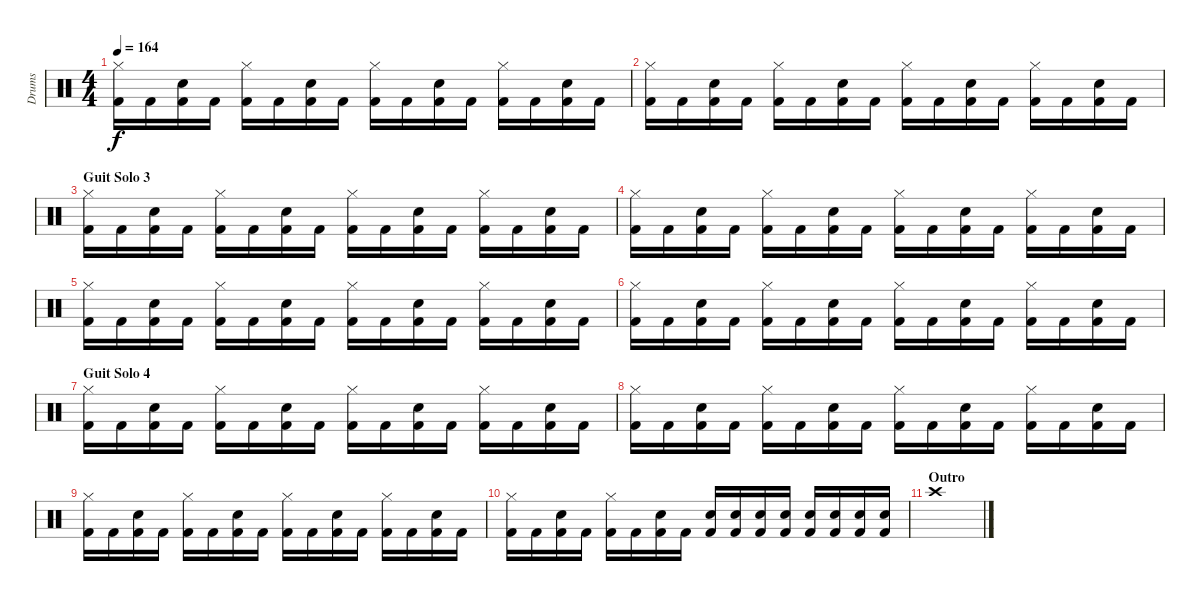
\track ("Drums" "Drums") {instrument percussion}
\staff {score}
\articulation defaults
\ts (4 4)
\tempo 164
\clef neutral
\ks c
("Hi-Hat (closed)" "Kick (hit) 2").16{dy f} "Kick (hit) 2".16 ("Snare (hit) 2" "Kick (hit) 2").16 "Kick (hit) 2".16 ("Hi-Hat (closed)" "Kick (hit) 2").16 "Kick (hit) 2".16 ("Snare (hit) 2" "Kick (hit) 2").16 "Kick (hit) 2".16 ("Hi-Hat (closed)" "Kick (hit) 2").16 "Kick (hit) 2".16 ("Snare (hit) 2" "Kick (hit) 2").16 "Kick (hit) 2".16 ("Hi-Hat (closed)" "Kick (hit) 2").16 "Kick (hit) 2".16 ("Snare (hit) 2" "Kick (hit) 2").16 "Kick (hit) 2".16 |
("Hi-Hat (closed)" "Kick (hit) 2").16 "Kick (hit) 2".16 ("Snare (hit) 2" "Kick (hit) 2").16 "Kick (hit) 2".16 ("Hi-Hat (closed)" "Kick (hit) 2").16 "Kick (hit) 2".16 ("Snare (hit) 2" "Kick (hit) 2").16 "Kick (hit) 2".16 ("Hi-Hat (closed)" "Kick (hit) 2").16 "Kick (hit) 2".16 ("Snare (hit) 2" "Kick (hit) 2").16 "Kick (hit) 2".16 ("Hi-Hat (closed)" "Kick (hit) 2").16 "Kick (hit) 2".16 ("Snare (hit) 2" "Kick (hit) 2").16 "Kick (hit) 2".16 |
\section ("" "Guit Solo 3")
("Hi-Hat (closed)" "Kick (hit) 2").16 "Kick (hit) 2".16 ("Snare (hit) 2" "Kick (hit) 2").16 "Kick (hit) 2".16 ("Hi-Hat (closed)" "Kick (hit) 2").16 "Kick (hit) 2".16 ("Snare (hit) 2" "Kick (hit) 2").16 "Kick (hit) 2".16 ("Hi-Hat (closed)" "Kick (hit) 2").16 "Kick (hit) 2".16 ("Snare (hit) 2" "Kick (hit) 2").16 "Kick (hit) 2".16 ("Hi-Hat (closed)" "Kick (hit) 2").16 "Kick (hit) 2".16 ("Snare (hit) 2" "Kick (hit) 2").16 "Kick (hit) 2".16 |
("Hi-Hat (closed)" "Kick (hit) 2").16 "Kick (hit) 2".16 ("Snare (hit) 2" "Kick (hit) 2").16 "Kick (hit) 2".16 ("Hi-Hat (closed)" "Kick (hit) 2").16 "Kick (hit) 2".16 ("Snare (hit) 2" "Kick (hit) 2").16 "Kick (hit) 2".16 ("Hi-Hat (closed)" "Kick (hit) 2").16 "Kick (hit) 2".16 ("Snare (hit) 2" "Kick (hit) 2").16 "Kick (hit) 2".16 ("Hi-Hat (closed)" "Kick (hit) 2").16 "Kick (hit) 2".16 ("Snare (hit) 2" "Kick (hit) 2").16 "Kick (hit) 2".16 |
("Hi-Hat (closed)" "Kick (hit) 2").16 "Kick (hit) 2".16 ("Snare (hit) 2" "Kick (hit) 2").16 "Kick (hit) 2".16 ("Hi-Hat (closed)" "Kick (hit) 2").16 "Kick (hit) 2".16 ("Snare (hit) 2" "Kick (hit) 2").16 "Kick (hit) 2".16 ("Hi-Hat (closed)" "Kick (hit) 2").16 "Kick (hit) 2".16 ("Snare (hit) 2" "Kick (hit) 2").16 "Kick (hit) 2".16 ("Hi-Hat (closed)" "Kick (hit) 2").16 "Kick (hit) 2".16 ("Snare (hit) 2" "Kick (hit) 2").16 "Kick (hit) 2".16 |
("Hi-Hat (closed)" "Kick (hit) 2").16 "Kick (hit) 2".16 ("Snare (hit) 2" "Kick (hit) 2").16 "Kick (hit) 2".16 ("Hi-Hat (closed)" "Kick (hit) 2").16 "Kick (hit) 2".16 ("Snare (hit) 2" "Kick (hit) 2").16 "Kick (hit) 2".16 ("Hi-Hat (closed)" "Kick (hit) 2").16 "Kick (hit) 2".16 ("Snare (hit) 2" "Kick (hit) 2").16 "Kick (hit) 2".16 ("Hi-Hat (closed)" "Kick (hit) 2").16 "Kick (hit) 2".16 ("Snare (hit) 2" "Kick (hit) 2").16 "Kick (hit) 2".16 |
\section ("" "Guit Solo 4")
("Hi-Hat (closed)" "Kick (hit) 2").16 "Kick (hit) 2".16 ("Snare (hit) 2" "Kick (hit) 2").16 "Kick (hit) 2".16 ("Hi-Hat (closed)" "Kick (hit) 2").16 "Kick (hit) 2".16 ("Snare (hit) 2" "Kick (hit) 2").16 "Kick (hit) 2".16 ("Hi-Hat (closed)" "Kick (hit) 2").16 "Kick (hit) 2".16 ("Snare (hit) 2" "Kick (hit) 2").16 "Kick (hit) 2".16 ("Hi-Hat (closed)" "Kick (hit) 2").16 "Kick (hit) 2".16 ("Snare (hit) 2" "Kick (hit) 2").16 "Kick (hit) 2".16 |
("Hi-Hat (closed)" "Kick (hit) 2").16 "Kick (hit) 2".16 ("Snare (hit) 2" "Kick (hit) 2").16 "Kick (hit) 2".16 ("Hi-Hat (closed)" "Kick (hit) 2").16 "Kick (hit) 2".16 ("Snare (hit) 2" "Kick (hit) 2").16 "Kick (hit) 2".16 ("Hi-Hat (closed)" "Kick (hit) 2").16 "Kick (hit) 2".16 ("Snare (hit) 2" "Kick (hit) 2").16 "Kick (hit) 2".16 ("Hi-Hat (closed)" "Kick (hit) 2").16 "Kick (hit) 2".16 ("Snare (hit) 2" "Kick (hit) 2").16 "Kick (hit) 2".16 |
("Hi-Hat (closed)" "Kick (hit) 2").16 "Kick (hit) 2".16 ("Snare (hit) 2" "Kick (hit) 2").16 "Kick (hit) 2".16 ("Hi-Hat (closed)" "Kick (hit) 2").16 "Kick (hit) 2".16 ("Snare (hit) 2" "Kick (hit) 2").16 "Kick (hit) 2".16 ("Hi-Hat (closed)" "Kick (hit) 2").16 "Kick (hit) 2".16 ("Snare (hit) 2" "Kick (hit) 2").16 "Kick (hit) 2".16 ("Hi-Hat (closed)" "Kick (hit) 2").16 "Kick (hit) 2".16 ("Snare (hit) 2" "Kick (hit) 2").16 "Kick (hit) 2".16 |
("Hi-Hat (closed)" "Kick (hit) 2").16 "Kick (hit) 2".16 ("Snare (hit) 2" "Kick (hit) 2").16 "Kick (hit) 2".16 ("Hi-Hat (closed)" "Kick (hit) 2").16 "Kick (hit) 2".16 ("Snare (hit) 2" "Kick (hit) 2").16 "Kick (hit) 2".16 ("Snare (hit) 2" "Kick (hit) 2").16 ("Snare (hit) 2" "Kick (hit) 2").16 ("Snare (hit) 2" "Kick (hit) 2").16 ("Snare (hit) 2" "Kick (hit) 2").16 ("Snare (hit) 2" "Kick (hit) 2").16 ("Snare (hit) 2" "Kick (hit) 2").16 ("Snare (hit) 2" "Kick (hit) 2").16 ("Snare (hit) 2" "Kick (hit) 2").16 |
\section ("" "Outro")
"Crash high (hit)".1
